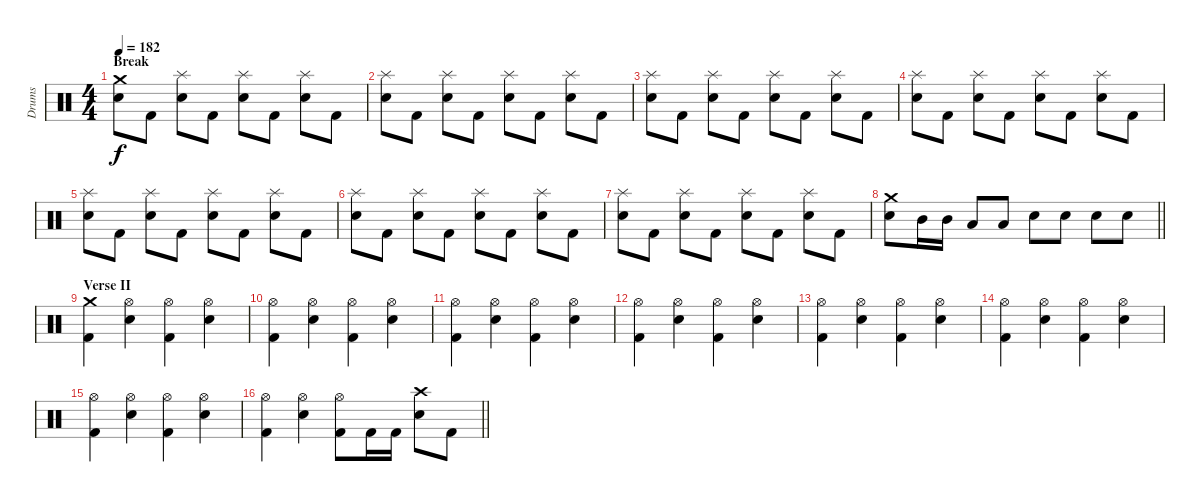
\track ("Drums" "Drums") {instrument percussion}
\staff {score}
\articulation defaults
\ts (4 4)
\section ("" "Break")
\tempo 182
\clef neutral
\ks c
("Snare (hit) 2" "Crash medium (hit)").8{dy f} "Kick (hit) 2".8 ("Snare (hit) 2" "Splash (hit)").8 "Kick (hit) 2".8 ("Snare (hit) 2" "Splash (hit)").8 "Kick (hit) 2".8 ("Snare (hit) 2" "Splash (hit)").8 "Kick (hit) 2".8 |
("Snare (hit) 2" "Splash (hit)").8 "Kick (hit) 2".8 ("Snare (hit) 2" "Splash (hit)").8 "Kick (hit) 2".8 ("Snare (hit) 2" "Splash (hit)").8 "Kick (hit) 2".8 ("Snare (hit) 2" "Splash (hit)").8 "Kick (hit) 2".8 |
("Snare (hit) 2" "Splash (hit)").8 "Kick (hit) 2".8 ("Snare (hit) 2" "Splash (hit)").8 "Kick (hit) 2".8 ("Snare (hit) 2" "Splash (hit)").8 "Kick (hit) 2".8 ("Snare (hit) 2" "Splash (hit)").8 "Kick (hit) 2".8 |
("Snare (hit) 2" "Splash (hit)").8 "Kick (hit) 2".8 ("Snare (hit) 2" "Splash (hit)").8 "Kick (hit) 2".8 ("Snare (hit) 2" "Splash (hit)").8 "Kick (hit) 2".8 ("Snare (hit) 2" "Splash (hit)").8 "Kick (hit) 2".8 |
("Snare (hit) 2" "Splash (hit)").8 "Kick (hit) 2".8 ("Snare (hit) 2" "Splash (hit)").8 "Kick (hit) 2".8 ("Snare (hit) 2" "Splash (hit)").8 "Kick (hit) 2".8 ("Snare (hit) 2" "Splash (hit)").8 "Kick (hit) 2".8 |
("Snare (hit) 2" "Splash (hit)").8 "Kick (hit) 2".8 ("Snare (hit) 2" "Splash (hit)").8 "Kick (hit) 2".8 ("Snare (hit) 2" "Splash (hit)").8 "Kick (hit) 2".8 ("Snare (hit) 2" "Splash (hit)").8 "Kick (hit) 2".8 |
("Snare (hit) 2" "Splash (hit)").8 "Kick (hit) 2".8 ("Snare (hit) 2" "Splash (hit)").8 "Kick (hit) 2".8 ("Snare (hit) 2" "Splash (hit)").8 "Kick (hit) 2".8 ("Snare (hit) 2" "Splash (hit)").8 "Kick (hit) 2".8 |
\barLineRight lightlight
("Snare (hit) 2" "Crash medium (hit)").8 "Mid Tom (hit)".16 "Mid Tom (hit)".16 "Low Tom (hit)".8 "Low Tom (hit)".8 "Snare (hit) 2".8 "Snare (hit) 2".8 "Snare (hit) 2".8 "Snare (hit) 2".8 |
\section ("" "Verse II")
("Kick (hit) 2" "Crash medium (hit)").4 ("Snare (hit) 2" "Hi-Hat (open)").4 ("Kick (hit) 2" "Hi-Hat (open)").4 ("Snare (hit) 2" "Hi-Hat (open)").4 |
("Kick (hit) 2" "Hi-Hat (open)").4 ("Snare (hit) 2" "Hi-Hat (open)").4 ("Kick (hit) 2" "Hi-Hat (open)").4 ("Snare (hit) 2" "Hi-Hat (open)").4 |
("Kick (hit) 2" "Hi-Hat (open)").4 ("Snare (hit) 2" "Hi-Hat (open)").4 ("Kick (hit) 2" "Hi-Hat (open)").4 ("Snare (hit) 2" "Hi-Hat (open)").4 |
("Kick (hit) 2" "Hi-Hat (open)").4 ("Snare (hit) 2" "Hi-Hat (open)").4 ("Kick (hit) 2" "Hi-Hat (open)").4 ("Snare (hit) 2" "Hi-Hat (open)").4 |
("Kick (hit) 2" "Hi-Hat (open)").4 ("Snare (hit) 2" "Hi-Hat (open)").4 ("Kick (hit) 2" "Hi-Hat (open)").4 ("Snare (hit) 2" "Hi-Hat (open)").4 |
("Kick (hit) 2" "Hi-Hat (open)").4 ("Snare (hit) 2" "Hi-Hat (open)").4 ("Kick (hit) 2" "Hi-Hat (open)").4 ("Snare (hit) 2" "Hi-Hat (open)").4 |
("Kick (hit) 2" "Hi-Hat (open)").4 ("Snare (hit) 2" "Hi-Hat (open)").4 ("Kick (hit) 2" "Hi-Hat (open)").4 ("Snare (hit) 2" "Hi-Hat (open)").4 |
\barLineRight lightlight
("Kick (hit) 2" "Hi-Hat (open)").4 ("Snare (hit) 2" "Hi-Hat (open)").4 ("Kick (hit) 2" "Hi-Hat (open)").8 "Kick (hit) 2".16 "Kick (hit) 2".16 ("Snare (hit) 2" "Crash high (hit)").8 "Kick (hit) 2".8
